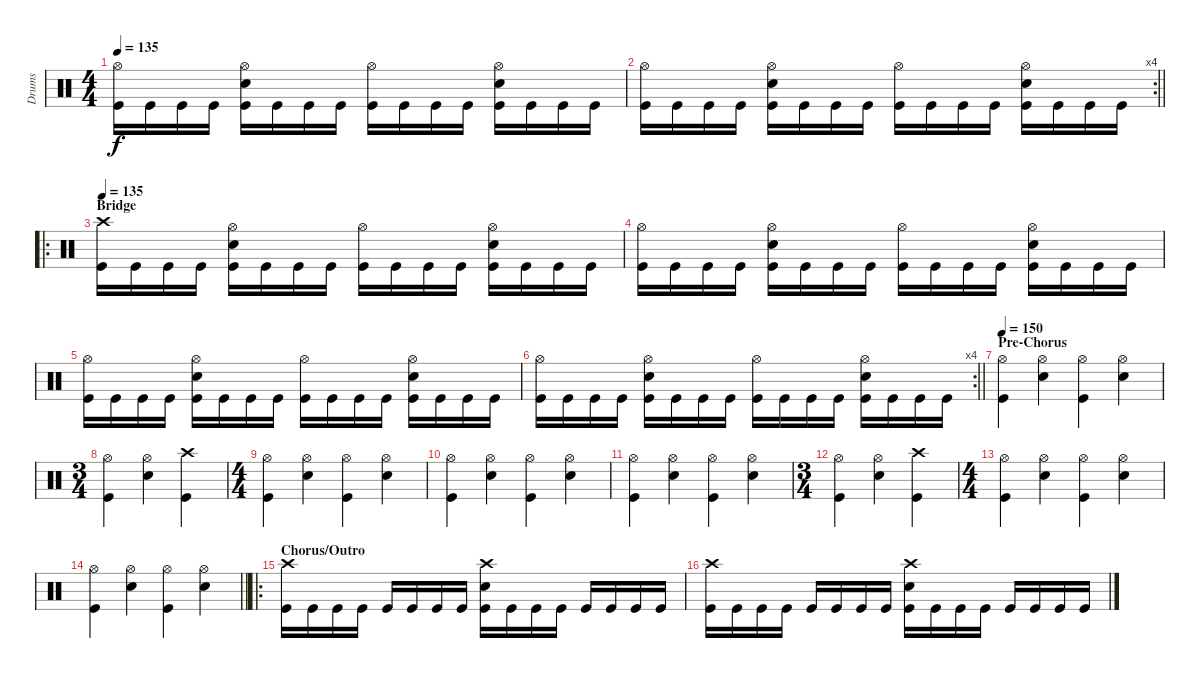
\track ("Drums" "Drums") {instrument percussion}
\staff {score}
\articulation defaults
\ts (4 4)
\tempo 135
\clef neutral
\ks c
("Hi-Hat (open)" "Kick (hit)").16{dy f} "Kick (hit)".16 "Kick (hit)".16 "Kick (hit)".16 ("Electric Snare (hit)" "Hi-Hat (open)" "Kick (hit)").16 "Kick (hit)".16 "Kick (hit)".16 "Kick (hit)".16 ("Hi-Hat (open)" "Kick (hit)").16 "Kick (hit)".16 "Kick (hit)".16 "Kick (hit)".16 ("Electric Snare (hit)" "Hi-Hat (open)" "Kick (hit)").16 "Kick (hit)".16 "Kick (hit)".16 "Kick (hit)".16 |
\rc 4
\barLineRight lightlight
("Hi-Hat (open)" "Kick (hit)").16 "Kick (hit)".16 "Kick (hit)".16 "Kick (hit)".16 ("Electric Snare (hit)" "Hi-Hat (open)" "Kick (hit)").16 "Kick (hit)".16 "Kick (hit)".16 "Kick (hit)".16 ("Hi-Hat (open)" "Kick (hit)").16 "Kick (hit)".16 "Kick (hit)".16 "Kick (hit)".16 ("Electric Snare (hit)" "Hi-Hat (open)" "Kick (hit)").16 "Kick (hit)".16 "Kick (hit)".16 "Kick (hit)".16 |
\ro
\section ("" "Bridge")
\tempo 135
("Crash high (hit)" "Kick (hit)").16 "Kick (hit)".16 "Kick (hit)".16 "Kick (hit)".16 ("Electric Snare (hit)" "Hi-Hat (open)" "Kick (hit)").16 "Kick (hit)".16 "Kick (hit)".16 "Kick (hit)".16 ("Hi-Hat (open)" "Kick (hit)").16 "Kick (hit)".16 "Kick (hit)".16 "Kick (hit)".16 ("Electric Snare (hit)" "Hi-Hat (open)" "Kick (hit)").16 "Kick (hit)".16 "Kick (hit)".16 "Kick (hit)".16 |
("Hi-Hat (open)" "Kick (hit)").16 "Kick (hit)".16 "Kick (hit)".16 "Kick (hit)".16 ("Electric Snare (hit)" "Hi-Hat (open)" "Kick (hit)").16 "Kick (hit)".16 "Kick (hit)".16 "Kick (hit)".16 ("Hi-Hat (open)" "Kick (hit)").16 "Kick (hit)".16 "Kick (hit)".16 "Kick (hit)".16 ("Electric Snare (hit)" "Hi-Hat (open)" "Kick (hit)").16 "Kick (hit)".16 "Kick (hit)".16 "Kick (hit)".16 |
("Hi-Hat (open)" "Kick (hit)").16 "Kick (hit)".16 "Kick (hit)".16 "Kick (hit)".16 ("Electric Snare (hit)" "Hi-Hat (open)" "Kick (hit)").16 "Kick (hit)".16 "Kick (hit)".16 "Kick (hit)".16 ("Hi-Hat (open)" "Kick (hit)").16 "Kick (hit)".16 "Kick (hit)".16 "Kick (hit)".16 ("Electric Snare (hit)" "Hi-Hat (open)" "Kick (hit)").16 "Kick (hit)".16 "Kick (hit)".16 "Kick (hit)".16 |
\rc 4
\barLineRight lightlight
("Hi-Hat (open)" "Kick (hit)").16 "Kick (hit)".16 "Kick (hit)".16 "Kick (hit)".16 ("Electric Snare (hit)" "Hi-Hat (open)" "Kick (hit)").16 "Kick (hit)".16 "Kick (hit)".16 "Kick (hit)".16 ("Hi-Hat (open)" "Kick (hit)").16 "Kick (hit)".16 "Kick (hit)".16 "Kick (hit)".16 ("Electric Snare (hit)" "Hi-Hat (open)" "Kick (hit)").16 "Kick (hit)".16 "Kick (hit)".16 "Kick (hit)".16 |
\section ("" "Pre-Chorus")
\tempo 150
("Hi-Hat (open)" "Kick (hit)").4 ("Hi-Hat (open)" "Electric Snare (hit)").4 ("Hi-Hat (open)" "Kick (hit)").4 ("Hi-Hat (open)" "Electric Snare (hit)").4 |
\ts (3 4)
("Hi-Hat (open)" "Kick (hit)").4 ("Hi-Hat (open)" "Electric Snare (hit)").4 ("Crash high (hit)" "Kick (hit)").4 |
\ts (4 4)
("Hi-Hat (open)" "Kick (hit)").4 ("Hi-Hat (open)" "Electric Snare (hit)").4 ("Hi-Hat (open)" "Kick (hit)").4 ("Hi-Hat (open)" "Electric Snare (hit)").4 |
("Hi-Hat (open)" "Kick (hit)").4 ("Hi-Hat (open)" "Electric Snare (hit)").4 ("Hi-Hat (open)" "Kick (hit)").4 ("Hi-Hat (open)" "Electric Snare (hit)").4 |
("Hi-Hat (open)" "Kick (hit)").4 ("Hi-Hat (open)" "Electric Snare (hit)").4 ("Hi-Hat (open)" "Kick (hit)").4 ("Hi-Hat (open)" "Electric Snare (hit)").4 |
\ts (3 4)
("Hi-Hat (open)" "Kick (hit)").4 ("Hi-Hat (open)" "Electric Snare (hit)").4 ("Crash high (hit)" "Kick (hit)").4 |
\ts (4 4)
("Hi-Hat (open)" "Kick (hit)").4 ("Hi-Hat (open)" "Electric Snare (hit)").4 ("Hi-Hat (open)" "Kick (hit)").4 ("Hi-Hat (open)" "Electric Snare (hit)").4 |
\barLineRight lightlight
("Hi-Hat (open)" "Kick (hit)").4 ("Hi-Hat (open)" "Electric Snare (hit)").4 ("Hi-Hat (open)" "Kick (hit)").4 ("Hi-Hat (open)" "Electric Snare (hit)").4 |
\ro
\section ("" "Chorus/Outro")
("Crash high (hit)" "Kick (hit)").16 "Kick (hit)".16 "Kick (hit)".16 "Kick (hit)".16 "Kick (hit)".16 "Kick (hit)".16 "Kick (hit)".16 "Kick (hit)".16 ("Electric Snare (hit)" "Crash high (hit)" "Kick (hit)").16 "Kick (hit)".16 "Kick (hit)".16 "Kick (hit)".16 "Kick (hit)".16 "Kick (hit)".16 "Kick (hit)".16 "Kick (hit)".16 |
("Crash high (hit)" "Kick (hit)").16 "Kick (hit)".16 "Kick (hit)".16 "Kick (hit)".16 "Kick (hit)".16 "Kick (hit)".16 "Kick (hit)".16 "Kick (hit)".16 ("Electric Snare (hit)" "Crash high (hit)" "Kick (hit)").16 "Kick (hit)".16 "Kick (hit)".16 "Kick (hit)".16 "Kick (hit)".16 "Kick (hit)".16 "Kick (hit)".16 "Kick (hit)".16
